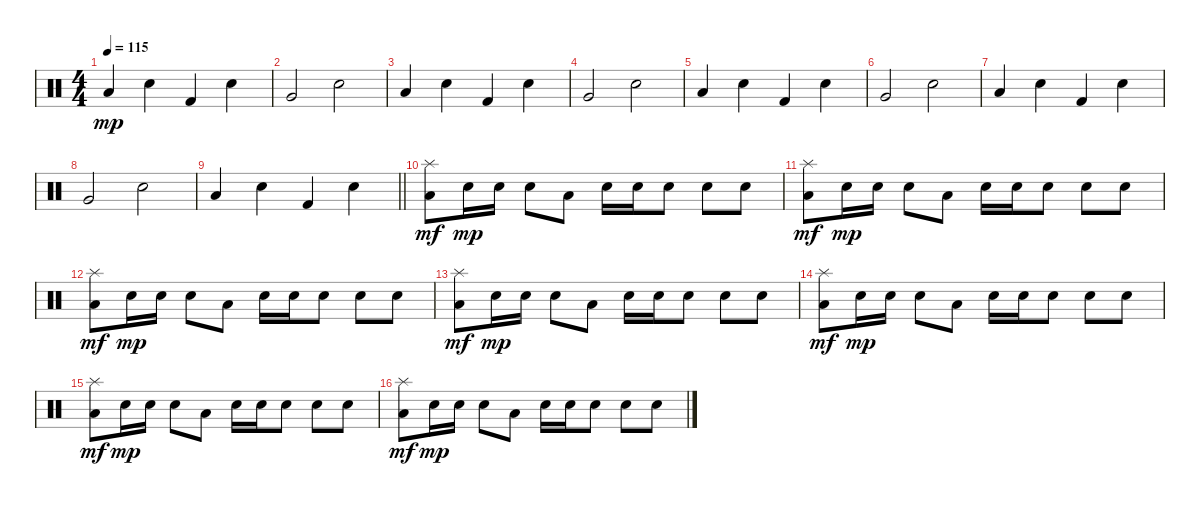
\track "" {instrument percussion}
\staff {score}
\articulation defaults
\ts (4 4)
\tempo 115
\clef neutral
\ks c "Low Floor Tom (hit)".4{dy mp} "Snare (hit) 2".4 "Kick (hit) 2".4 "Snare (hit) 2".4
|
"Very Low Tom (hit)".2 "Electric Snare (hit)".2 |
"Low Floor Tom (hit)".4 "Snare (hit) 2".4 "Kick (hit) 2".4 "Snare (hit) 2".4 |
"Very Low Tom (hit)".2 "Electric Snare (hit)".2 |
"Low Floor Tom (hit)".4 "Snare (hit) 2".4 "Kick (hit) 2".4 "Snare (hit) 2".4 |
"Very Low Tom (hit)".2 "Electric Snare (hit)".2 |
"Low Floor Tom (hit)".4 "Snare (hit) 2".4 "Kick (hit) 2".4 "Snare (hit) 2".4 |
"Very Low Tom (hit)".2 "Electric Snare (hit)".2 |
\barLineRight lightlight "Low Floor Tom (hit)".4 "Snare (hit) 2".4 "Kick (hit) 2".4 "Snare (hit) 2".4
|
\section ("" "")
("Low Floor Tom (hit)" "Splash (hit)").8{dy mf} "Snare (hit) 2".16{dy mp} "Electric Snare (hit)".16 "Hand Clap (hit)".8 "Low Floor Tom (hit)".8 "Snare (hit) 2".16 "Electric Snare (hit)".16 "Hand Clap (hit)".8 "Electric Snare (hit)".8 "Electric Snare (hit)".8 |
("Low Floor Tom (hit)" "Splash (hit)").8{dy mf} "Snare (hit) 2".16{dy mp} "Electric Snare (hit)".16 "Hand Clap (hit)".8 "Low Floor Tom (hit)".8 "Snare (hit) 2".16 "Electric Snare (hit)".16 "Hand Clap (hit)".8 "Electric Snare (hit)".8 "Electric Snare (hit)".8 |
("Low Floor Tom (hit)" "Splash (hit)").8{dy mf} "Snare (hit) 2".16{dy mp} "Electric Snare (hit)".16 "Hand Clap (hit)".8 "Low Floor Tom (hit)".8 "Snare (hit) 2".16 "Electric Snare (hit)".16 "Hand Clap (hit)".8 "Electric Snare (hit)".8 "Electric Snare (hit)".8 |
("Low Floor Tom (hit)" "Splash (hit)").8{dy mf} "Snare (hit) 2".16{dy mp} "Electric Snare (hit)".16 "Hand Clap (hit)".8 "Low Floor Tom (hit)".8 "Snare (hit) 2".16 "Electric Snare (hit)".16 "Hand Clap (hit)".8 "Electric Snare (hit)".8 "Electric Snare (hit)".8 |
("Low Floor Tom (hit)" "Splash (hit)").8{dy mf} "Snare (hit) 2".16{dy mp} "Electric Snare (hit)".16 "Hand Clap (hit)".8 "Low Floor Tom (hit)".8 "Snare (hit) 2".16 "Electric Snare (hit)".16 "Hand Clap (hit)".8 "Electric Snare (hit)".8 "Electric Snare (hit)".8 |
("Low Floor Tom (hit)" "Splash (hit)").8{dy mf} "Snare (hit) 2".16{dy mp} "Electric Snare (hit)".16 "Hand Clap (hit)".8 "Low Floor Tom (hit)".8 "Snare (hit) 2".16 "Electric Snare (hit)".16 "Hand Clap (hit)".8 "Electric Snare (hit)".8 "Electric Snare (hit)".8 |
("Low Floor Tom (hit)" "Splash (hit)").8{dy mf} "Snare (hit) 2".16{dy mp} "Electric Snare (hit)".16 "Hand Clap (hit)".8 "Low Floor Tom (hit)".8 "Snare (hit) 2".16 "Electric Snare (hit)".16 "Hand Clap (hit)".8 "Electric Snare (hit)".8 "Electric Snare (hit)".8
